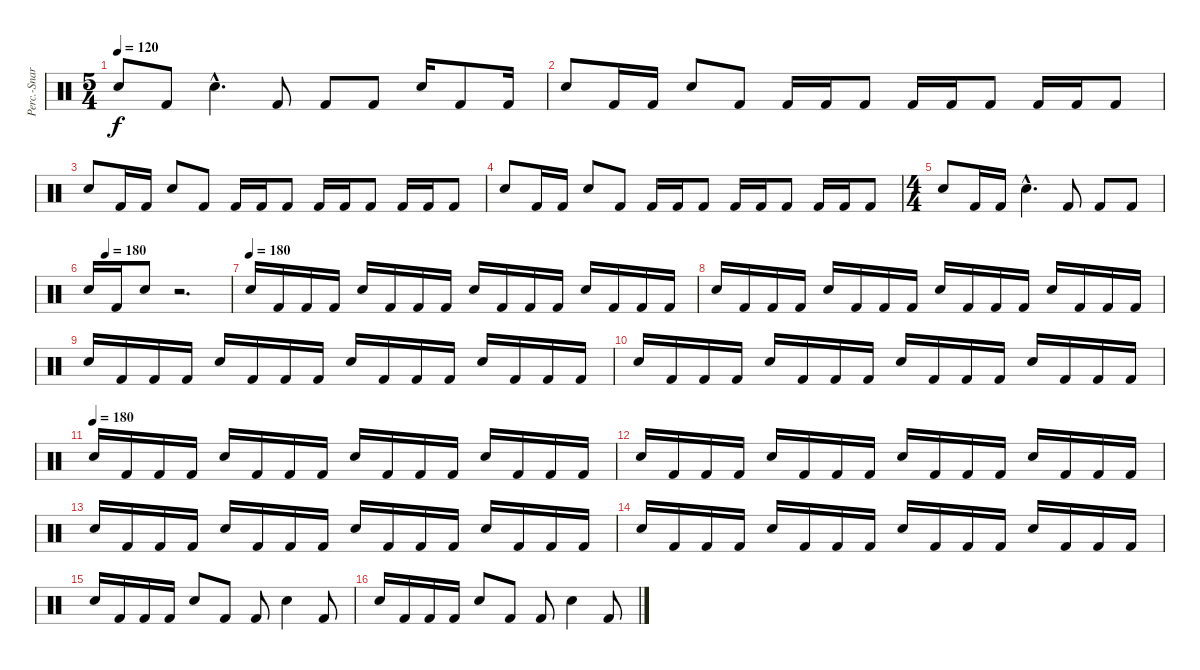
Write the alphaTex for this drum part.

\track ("Perc.-Snare/Kick" "Perc.-Snar") {instrument percussion}
\staff {score}
\articulation defaults
\ts (5 4)
\tempo 120
\clef neutral
\ks c "Snare (hit) 2".8{dy f} "Kick (hit) 2".8 "Snare (hit) 2"{hac}.4{d} "Kick (hit) 2".8 "Kick (hit) 2".8 "Kick (hit) 2".8 "Snare (hit) 2".16 "Kick (hit) 2".8 "Kick (hit) 2".16
|
"Snare (hit) 2".8 "Kick (hit) 2".16 "Kick (hit) 2".16 "Snare (hit) 2".8 "Kick (hit) 2".8 "Kick (hit) 2".16 "Kick (hit) 2".16 "Kick (hit) 2".8 "Kick (hit) 2".16 "Kick (hit) 2".16 "Kick (hit) 2".8 "Kick (hit) 2".16 "Kick (hit) 2".16 "Kick (hit) 2".8 |
"Snare (hit) 2".8 "Kick (hit) 2".16 "Kick (hit) 2".16 "Snare (hit) 2".8 "Kick (hit) 2".8 "Kick (hit) 2".16 "Kick (hit) 2".16 "Kick (hit) 2".8 "Kick (hit) 2".16 "Kick (hit) 2".16 "Kick (hit) 2".8 "Kick (hit) 2".16 "Kick (hit) 2".16 "Kick (hit) 2".8 |
"Snare (hit) 2".8 "Kick (hit) 2".16 "Kick (hit) 2".16 "Snare (hit) 2".8 "Kick (hit) 2".8 "Kick (hit) 2".16 "Kick (hit) 2".16 "Kick (hit) 2".8 "Kick (hit) 2".16 "Kick (hit) 2".16 "Kick (hit) 2".8 "Kick (hit) 2".16 "Kick (hit) 2".16 "Kick (hit) 2".8 |
\ts (4 4)
"Snare (hit) 2".8 "Kick (hit) 2".16 "Kick (hit) 2".16 "Snare (hit) 2"{hac}.4{d} "Kick (hit) 2".8 "Kick (hit) 2".8 "Kick (hit) 2".8 |
\tempo (180 0.125)
"Snare (hit) 2".16 "Kick (hit) 2".16 "Snare (hit) 2".8 r.2{d} |
\tempo (180)
"Snare (hit) 2".16 "Kick (hit) 2".16 "Kick (hit) 2".16 "Kick (hit) 2".16 "Snare (hit) 2".16 "Kick (hit) 2".16 "Kick (hit) 2".16 "Kick (hit) 2".16 "Snare (hit) 2".16 "Kick (hit) 2".16 "Kick (hit) 2".16 "Kick (hit) 2".16 "Snare (hit) 2".16 "Kick (hit) 2".16 "Kick (hit) 2".16 "Kick (hit) 2".16 |
"Snare (hit) 2".16 "Kick (hit) 2".16 "Kick (hit) 2".16 "Kick (hit) 2".16 "Snare (hit) 2".16 "Kick (hit) 2".16 "Kick (hit) 2".16 "Kick (hit) 2".16 "Snare (hit) 2".16 "Kick (hit) 2".16 "Kick (hit) 2".16 "Kick (hit) 2".16 "Snare (hit) 2".16 "Kick (hit) 2".16 "Kick (hit) 2".16 "Kick (hit) 2".16 |
"Snare (hit) 2".16 "Kick (hit) 2".16 "Kick (hit) 2".16 "Kick (hit) 2".16 "Snare (hit) 2".16 "Kick (hit) 2".16 "Kick (hit) 2".16 "Kick (hit) 2".16 "Snare (hit) 2".16 "Kick (hit) 2".16 "Kick (hit) 2".16 "Kick (hit) 2".16 "Snare (hit) 2".16 "Kick (hit) 2".16 "Kick (hit) 2".16 "Kick (hit) 2".16 |
"Snare (hit) 2".16 "Kick (hit) 2".16 "Kick (hit) 2".16 "Kick (hit) 2".16 "Snare (hit) 2".16 "Kick (hit) 2".16 "Kick (hit) 2".16 "Kick (hit) 2".16 "Snare (hit) 2".16 "Kick (hit) 2".16 "Kick (hit) 2".16 "Kick (hit) 2".16 "Snare (hit) 2".16 "Kick (hit) 2".16 "Kick (hit) 2".16 "Kick (hit) 2".16 |
\tempo (180)
"Snare (hit) 2".16 "Kick (hit) 2".16 "Kick (hit) 2".16 "Kick (hit) 2".16 "Snare (hit) 2".16 "Kick (hit) 2".16 "Kick (hit) 2".16 "Kick (hit) 2".16 "Snare (hit) 2".16 "Kick (hit) 2".16 "Kick (hit) 2".16 "Kick (hit) 2".16 "Snare (hit) 2".16 "Kick (hit) 2".16 "Kick (hit) 2".16 "Kick (hit) 2".16 |
"Snare (hit) 2".16 "Kick (hit) 2".16 "Kick (hit) 2".16 "Kick (hit) 2".16 "Snare (hit) 2".16 "Kick (hit) 2".16 "Kick (hit) 2".16 "Kick (hit) 2".16 "Snare (hit) 2".16 "Kick (hit) 2".16 "Kick (hit) 2".16 "Kick (hit) 2".16 "Snare (hit) 2".16 "Kick (hit) 2".16 "Kick (hit) 2".16 "Kick (hit) 2".16 |
"Snare (hit) 2".16 "Kick (hit) 2".16 "Kick (hit) 2".16 "Kick (hit) 2".16 "Snare (hit) 2".16 "Kick (hit) 2".16 "Kick (hit) 2".16 "Kick (hit) 2".16 "Snare (hit) 2".16 "Kick (hit) 2".16 "Kick (hit) 2".16 "Kick (hit) 2".16 "Snare (hit) 2".16 "Kick (hit) 2".16 "Kick (hit) 2".16 "Kick (hit) 2".16 |
"Snare (hit) 2".16 "Kick (hit) 2".16 "Kick (hit) 2".16 "Kick (hit) 2".16 "Snare (hit) 2".16 "Kick (hit) 2".16 "Kick (hit) 2".16 "Kick (hit) 2".16 "Snare (hit) 2".16 "Kick (hit) 2".16 "Kick (hit) 2".16 "Kick (hit) 2".16 "Snare (hit) 2".16 "Kick (hit) 2".16 "Kick (hit) 2".16 "Kick (hit) 2".16 |
"Snare (hit) 2".16 "Kick (hit) 2".16 "Kick (hit) 2".16 "Kick (hit) 2".16 "Snare (hit) 2".8 "Kick (hit) 2".8 "Kick (hit) 2".8 "Snare (hit) 2".4 "Kick (hit) 2".8 |
"Snare (hit) 2".16 "Kick (hit) 2".16 "Kick (hit) 2".16 "Kick (hit) 2".16 "Snare (hit) 2".8 "Kick (hit) 2".8 "Kick (hit) 2".8 "Snare (hit) 2".4 "Kick (hit) 2".8
